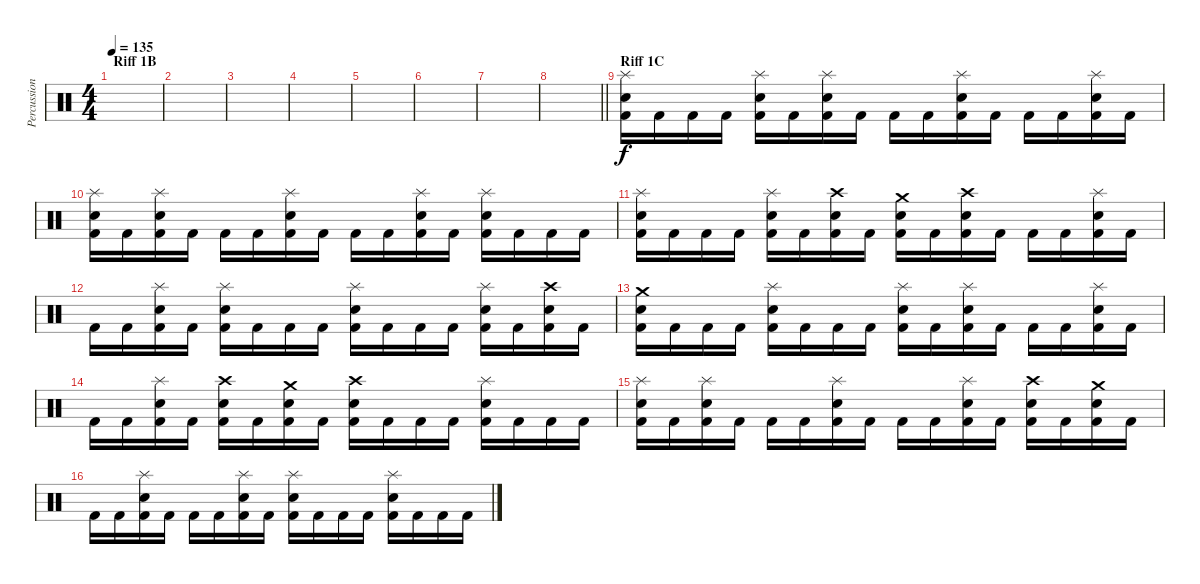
\track ("Percussion" "Percussion") {instrument percussion}
\staff {score}
\articulation defaults
\ts (4 4)
\section ("" "Riff 1B")
\tempo 135
\clef neutral
\ks c
|
|
|
|
|
|
|
\barLineRight lightlight
|
\section ("" "Riff 1C")
("Splash (hit)" "Snare (hit) 2" "Kick (hit) 2").16 "Kick (hit) 2".16 "Kick (hit) 2".16 "Kick (hit) 2".16 ("Splash (hit)" "Snare (hit) 2" "Kick (hit) 2").16 "Kick (hit) 2".16 ("Splash (hit)" "Snare (hit) 2" "Kick (hit) 2").16 "Kick (hit) 2".16 "Kick (hit) 2".16 "Kick (hit) 2".16 ("Splash (hit)" "Snare (hit) 2" "Kick (hit) 2").16 "Kick (hit) 2".16 "Kick (hit) 2".16 "Kick (hit) 2".16 ("Splash (hit)" "Snare (hit) 2" "Kick (hit) 2").16 "Kick (hit) 2".16 |
("Splash (hit)" "Snare (hit) 2" "Kick (hit) 2").16 "Kick (hit) 2".16 ("Splash (hit)" "Snare (hit) 2" "Kick (hit) 2").16 "Kick (hit) 2".16 "Kick (hit) 2".16 "Kick (hit) 2".16 ("Splash (hit)" "Snare (hit) 2" "Kick (hit) 2").16 "Kick (hit) 2".16 "Kick (hit) 2".16 "Kick (hit) 2".16 ("Splash (hit)" "Snare (hit) 2" "Kick (hit) 2").16 "Kick (hit) 2".16 ("Splash (hit)" "Snare (hit) 2" "Kick (hit) 2").16 "Kick (hit) 2".16 "Kick (hit) 2".16 "Kick (hit) 2".16 |
("Splash (hit)" "Snare (hit) 2" "Kick (hit) 2").16 "Kick (hit) 2".16 "Kick (hit) 2".16 "Kick (hit) 2".16 ("Splash (hit)" "Snare (hit) 2" "Kick (hit) 2").16 "Kick (hit) 2".16 ("Crash high (hit)" "Snare (hit) 2" "Kick (hit) 2").16 "Kick (hit) 2".16 ("Crash medium (hit)" "Snare (hit) 2" "Kick (hit) 2").16 "Kick (hit) 2".16 ("Crash high (hit)" "Snare (hit) 2" "Kick (hit) 2").16 "Kick (hit) 2".16 "Kick (hit) 2".16 "Kick (hit) 2".16 ("Splash (hit)" "Snare (hit) 2" "Kick (hit) 2").16 "Kick (hit) 2".16 |
"Kick (hit) 2".16 "Kick (hit) 2".16 ("Splash (hit)" "Snare (hit) 2" "Kick (hit) 2").16 "Kick (hit) 2".16 ("Splash (hit)" "Snare (hit) 2" "Kick (hit) 2").16 "Kick (hit) 2".16 "Kick (hit) 2".16 "Kick (hit) 2".16 ("Splash (hit)" "Snare (hit) 2" "Kick (hit) 2").16 "Kick (hit) 2".16 "Kick (hit) 2".16 "Kick (hit) 2".16 ("Splash (hit)" "Snare (hit) 2" "Kick (hit) 2").16 "Kick (hit) 2".16 ("Crash high (hit)" "Snare (hit) 2" "Kick (hit) 2").16 "Kick (hit) 2".16 |
("Crash medium (hit)" "Snare (hit) 2" "Kick (hit) 2").16 "Kick (hit) 2".16 "Kick (hit) 2".16 "Kick (hit) 2".16 ("Splash (hit)" "Snare (hit) 2" "Kick (hit) 2").16 "Kick (hit) 2".16 "Kick (hit) 2".16 "Kick (hit) 2".16 ("Splash (hit)" "Snare (hit) 2" "Kick (hit) 2").16 "Kick (hit) 2".16 ("Splash (hit)" "Snare (hit) 2" "Kick (hit) 2").16 "Kick (hit) 2".16 "Kick (hit) 2".16 "Kick (hit) 2".16 ("Splash (hit)" "Snare (hit) 2" "Kick (hit) 2").16 "Kick (hit) 2".16 |
"Kick (hit) 2".16 "Kick (hit) 2".16 ("Splash (hit)" "Snare (hit) 2" "Kick (hit) 2").16 "Kick (hit) 2".16 ("Crash high (hit)" "Snare (hit) 2" "Kick (hit) 2").16 "Kick (hit) 2".16 ("Crash medium (hit)" "Snare (hit) 2" "Kick (hit) 2").16 "Kick (hit) 2".16 ("Crash high (hit)" "Snare (hit) 2" "Kick (hit) 2").16 "Kick (hit) 2".16 "Kick (hit) 2".16 "Kick (hit) 2".16 ("Splash (hit)" "Snare (hit) 2" "Kick (hit) 2").16 "Kick (hit) 2".16 "Kick (hit) 2".16 "Kick (hit) 2".16 |
("Splash (hit)" "Snare (hit) 2" "Kick (hit) 2").16 "Kick (hit) 2".16 ("Splash (hit)" "Snare (hit) 2" "Kick (hit) 2").16 "Kick (hit) 2".16 "Kick (hit) 2".16 "Kick (hit) 2".16 ("Splash (hit)" "Snare (hit) 2" "Kick (hit) 2").16 "Kick (hit) 2".16 "Kick (hit) 2".16 "Kick (hit) 2".16 ("Splash (hit)" "Snare (hit) 2" "Kick (hit) 2").16 "Kick (hit) 2".16 ("Crash high (hit)" "Snare (hit) 2" "Kick (hit) 2").16 "Kick (hit) 2".16 ("Crash medium (hit)" "Snare (hit) 2" "Kick (hit) 2").16 "Kick (hit) 2".16 |
"Kick (hit) 2".16 "Kick (hit) 2".16 ("Splash (hit)" "Snare (hit) 2" "Kick (hit) 2").16 "Kick (hit) 2".16 "Kick (hit) 2".16 "Kick (hit) 2".16 ("Splash (hit)" "Snare (hit) 2" "Kick (hit) 2").16 "Kick (hit) 2".16 ("Splash (hit)" "Snare (hit) 2" "Kick (hit) 2").16 "Kick (hit) 2".16 "Kick (hit) 2".16 "Kick (hit) 2".16 ("Splash (hit)" "Snare (hit) 2" "Kick (hit) 2").16 "Kick (hit) 2".16 "Kick (hit) 2".16 "Kick (hit) 2".16
